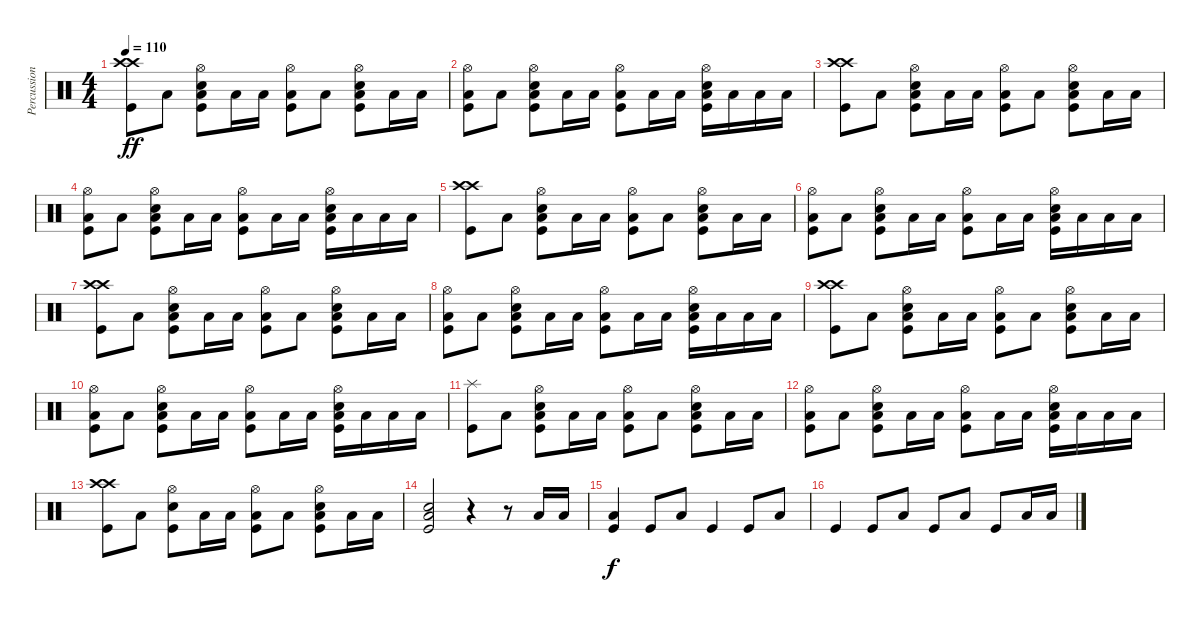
\track ("Percussion" "Percussion") {instrument percussion}
\staff {score}
\articulation defaults
\ts (4 4)
\tempo 110
\clef neutral
\ks c
("Crash high (hit)" "Kick (hit)" "Crash high (hit)").8{dy ff} "Low Floor Tom (hit)".8 ("Kick (hit)" "Low Floor Tom (hit)" "Snare (hit) 2" "Hi-Hat (open)").8 "Low Floor Tom (hit)".16 "Low Floor Tom (hit)".16 ("Kick (hit)" "Low Floor Tom (hit)" "Hi-Hat (open)").8 "Low Floor Tom (hit)".8 ("Low Floor Tom (hit)" "Kick (hit)" "Snare (hit) 2" "Hi-Hat (open)").8 "Low Floor Tom (hit)".16 "Low Floor Tom (hit)".16 |
("Kick (hit)" "Low Floor Tom (hit)" "Hi-Hat (open)").8 "Low Floor Tom (hit)".8 ("Low Floor Tom (hit)" "Kick (hit)" "Snare (hit) 2" "Hi-Hat (open)").8 "Low Floor Tom (hit)".16 "Low Floor Tom (hit)".16 ("Kick (hit)" "Low Floor Tom (hit)" "Hi-Hat (open)").8 "Low Floor Tom (hit)".16 "Low Floor Tom (hit)".16 ("Low Floor Tom (hit)" "Kick (hit)" "Snare (hit) 2" "Hi-Hat (open)").16 "Low Floor Tom (hit)".16 "Low Floor Tom (hit)".16 "Low Floor Tom (hit)".16 |
("Crash high (hit)" "Kick (hit)" "Crash high (hit)").8 "Low Floor Tom (hit)".8 ("Kick (hit)" "Low Floor Tom (hit)" "Snare (hit) 2" "Hi-Hat (open)").8 "Low Floor Tom (hit)".16 "Low Floor Tom (hit)".16 ("Kick (hit)" "Low Floor Tom (hit)" "Hi-Hat (open)").8 "Low Floor Tom (hit)".8 ("Low Floor Tom (hit)" "Kick (hit)" "Snare (hit) 2" "Hi-Hat (open)").8 "Low Floor Tom (hit)".16 "Low Floor Tom (hit)".16 |
("Kick (hit)" "Low Floor Tom (hit)" "Hi-Hat (open)").8 "Low Floor Tom (hit)".8 ("Low Floor Tom (hit)" "Kick (hit)" "Snare (hit) 2" "Hi-Hat (open)").8 "Low Floor Tom (hit)".16 "Low Floor Tom (hit)".16 ("Kick (hit)" "Low Floor Tom (hit)" "Hi-Hat (open)").8 "Low Floor Tom (hit)".16 "Low Floor Tom (hit)".16 ("Low Floor Tom (hit)" "Kick (hit)" "Snare (hit) 2" "Hi-Hat (open)").16 "Low Floor Tom (hit)".16 "Low Floor Tom (hit)".16 "Low Floor Tom (hit)".16 |
("Crash high (hit)" "Kick (hit)" "Crash high (hit)").8 "Low Floor Tom (hit)".8 ("Kick (hit)" "Low Floor Tom (hit)" "Snare (hit) 2" "Hi-Hat (open)").8 "Low Floor Tom (hit)".16 "Low Floor Tom (hit)".16 ("Kick (hit)" "Low Floor Tom (hit)" "Hi-Hat (open)").8 "Low Floor Tom (hit)".8 ("Low Floor Tom (hit)" "Kick (hit)" "Snare (hit) 2" "Hi-Hat (open)").8 "Low Floor Tom (hit)".16 "Low Floor Tom (hit)".16 |
("Kick (hit)" "Low Floor Tom (hit)" "Hi-Hat (open)").8 "Low Floor Tom (hit)".8 ("Low Floor Tom (hit)" "Kick (hit)" "Snare (hit) 2" "Hi-Hat (open)").8 "Low Floor Tom (hit)".16 "Low Floor Tom (hit)".16 ("Kick (hit)" "Low Floor Tom (hit)" "Hi-Hat (open)").8 "Low Floor Tom (hit)".16 "Low Floor Tom (hit)".16 ("Low Floor Tom (hit)" "Kick (hit)" "Snare (hit) 2" "Hi-Hat (open)").16 "Low Floor Tom (hit)".16 "Low Floor Tom (hit)".16 "Low Floor Tom (hit)".16 |
("Crash high (hit)" "Kick (hit)" "Crash high (hit)").8 "Low Floor Tom (hit)".8 ("Kick (hit)" "Low Floor Tom (hit)" "Snare (hit) 2" "Hi-Hat (open)").8 "Low Floor Tom (hit)".16 "Low Floor Tom (hit)".16 ("Kick (hit)" "Low Floor Tom (hit)" "Hi-Hat (open)").8 "Low Floor Tom (hit)".8 ("Low Floor Tom (hit)" "Kick (hit)" "Snare (hit) 2" "Hi-Hat (open)").8 "Low Floor Tom (hit)".16 "Low Floor Tom (hit)".16 |
("Kick (hit)" "Low Floor Tom (hit)" "Hi-Hat (open)").8 "Low Floor Tom (hit)".8 ("Low Floor Tom (hit)" "Kick (hit)" "Snare (hit) 2" "Hi-Hat (open)").8 "Low Floor Tom (hit)".16 "Low Floor Tom (hit)".16 ("Kick (hit)" "Low Floor Tom (hit)" "Hi-Hat (open)").8 "Low Floor Tom (hit)".16 "Low Floor Tom (hit)".16 ("Low Floor Tom (hit)" "Kick (hit)" "Snare (hit) 2" "Hi-Hat (open)").16 "Low Floor Tom (hit)".16 "Low Floor Tom (hit)".16 "Low Floor Tom (hit)".16 |
("Crash high (hit)" "Kick (hit)" "Crash high (hit)").8 "Low Floor Tom (hit)".8 ("Kick (hit)" "Low Floor Tom (hit)" "Snare (hit) 2" "Hi-Hat (open)").8 "Low Floor Tom (hit)".16 "Low Floor Tom (hit)".16 ("Kick (hit)" "Low Floor Tom (hit)" "Hi-Hat (open)").8 "Low Floor Tom (hit)".8 ("Low Floor Tom (hit)" "Kick (hit)" "Snare (hit) 2" "Hi-Hat (open)").8 "Low Floor Tom (hit)".16 "Low Floor Tom (hit)".16 |
("Kick (hit)" "Low Floor Tom (hit)" "Hi-Hat (open)").8 "Low Floor Tom (hit)".8 ("Low Floor Tom (hit)" "Kick (hit)" "Snare (hit) 2" "Hi-Hat (open)").8 "Low Floor Tom (hit)".16 "Low Floor Tom (hit)".16 ("Kick (hit)" "Low Floor Tom (hit)" "Hi-Hat (open)").8 "Low Floor Tom (hit)".16 "Low Floor Tom (hit)".16 ("Low Floor Tom (hit)" "Kick (hit)" "Snare (hit) 2" "Hi-Hat (open)").16 "Low Floor Tom (hit)".16 "Low Floor Tom (hit)".16 "Low Floor Tom (hit)".16 |
("Splash (hit)" "Kick (hit)").8 "Low Floor Tom (hit)".8 ("Kick (hit)" "Low Floor Tom (hit)" "Snare (hit) 2" "Hi-Hat (open)").8 "Low Floor Tom (hit)".16 "Low Floor Tom (hit)".16 ("Kick (hit)" "Low Floor Tom (hit)" "Hi-Hat (open)").8 "Low Floor Tom (hit)".8 ("Low Floor Tom (hit)" "Kick (hit)" "Snare (hit) 2" "Hi-Hat (open)").8 "Low Floor Tom (hit)".16 "Low Floor Tom (hit)".16 |
("Kick (hit)" "Low Floor Tom (hit)" "Hi-Hat (open)").8 "Low Floor Tom (hit)".8 ("Low Floor Tom (hit)" "Kick (hit)" "Snare (hit) 2" "Hi-Hat (open)").8 "Low Floor Tom (hit)".16 "Low Floor Tom (hit)".16 ("Kick (hit)" "Low Floor Tom (hit)" "Hi-Hat (open)").8 "Low Floor Tom (hit)".16 "Low Floor Tom (hit)".16 ("Low Floor Tom (hit)" "Kick (hit)" "Snare (hit) 2" "Hi-Hat (open)").16 "Low Floor Tom (hit)".16 "Low Floor Tom (hit)".16 "Low Floor Tom (hit)".16 |
("Crash high (hit)" "Kick (hit)" "Crash high (hit)").8 "Low Floor Tom (hit)".8 ("Kick (hit)" "Snare (hit) 2" "Hi-Hat (open)").8 "Low Floor Tom (hit)".16 "Low Floor Tom (hit)".16 ("Kick (hit)" "Low Floor Tom (hit)" "Hi-Hat (open)").8 "Low Floor Tom (hit)".8 ("Low Floor Tom (hit)" "Kick (hit)" "Snare (hit) 2" "Hi-Hat (open)").8 "Low Floor Tom (hit)".16 "Low Floor Tom (hit)".16 |
("Kick (hit)" "Snare (hit) 2" "Low Floor Tom (hit)").2 r.4 r.8 "Low Floor Tom (hit)".16 "Low Floor Tom (hit)".16 |
("Kick (hit)" "Low Floor Tom (hit)").4{dy f} "Kick (hit)".8 "Low Floor Tom (hit)".8 "Kick (hit)".4 "Kick (hit)".8 "Low Floor Tom (hit)".8 |
"Kick (hit)".4 "Kick (hit)".8 "Low Floor Tom (hit)".8 "Kick (hit)".8 "Low Floor Tom (hit)".8 "Kick (hit)".8 "Low Floor Tom (hit)".16 "Low Floor Tom (hit)".16
